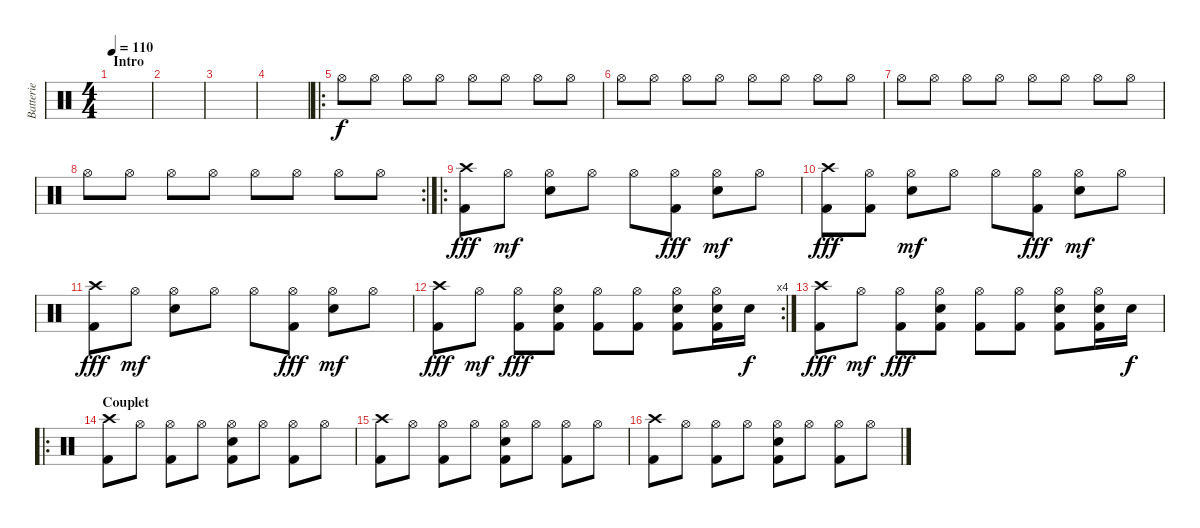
\track ("Batterie" "Batterie") {instrument percussion}
\staff {score}
\articulation defaults
\ts (4 4)
\section ("" "Intro")
\tempo 110
\clef neutral
\ks c
|
|
|
|
\ro "Hi-Hat (open)".8 "Hi-Hat (open)".8 "Hi-Hat (open)".8 "Hi-Hat (open)".8 "Hi-Hat (open)".8 "Hi-Hat (open)".8 "Hi-Hat (open)".8 "Hi-Hat (open)".8
|
"Hi-Hat (open)".8 "Hi-Hat (open)".8 "Hi-Hat (open)".8 "Hi-Hat (open)".8 "Hi-Hat (open)".8 "Hi-Hat (open)".8 "Hi-Hat (open)".8 "Hi-Hat (open)".8 |
"Hi-Hat (open)".8 "Hi-Hat (open)".8 "Hi-Hat (open)".8 "Hi-Hat (open)".8 "Hi-Hat (open)".8 "Hi-Hat (open)".8 "Hi-Hat (open)".8 "Hi-Hat (open)".8 |
\rc 2 "Hi-Hat (open)".8 "Hi-Hat (open)".8 "Hi-Hat (open)".8 "Hi-Hat (open)".8 "Hi-Hat (open)".8 "Hi-Hat (open)".8 "Hi-Hat (open)".8 "Hi-Hat (open)".8
|
\ro
("Crash high (hit)" "Kick (hit) 2").8{dy fff} "Hi-Hat (open)".8{dy mf} ("Hi-Hat (open)" "Snare (hit) 2").8 "Hi-Hat (open)".8 "Hi-Hat (open)".8 ("Hi-Hat (open)" "Kick (hit) 2").8{dy fff} ("Hi-Hat (open)" "Snare (hit) 2").8{dy mf} "Hi-Hat (open)".8 |
("Crash high (hit)" "Kick (hit) 2").8{dy fff} ("Hi-Hat (open)" "Kick (hit) 2").8 ("Hi-Hat (open)" "Snare (hit) 2").8{dy mf} "Hi-Hat (open)".8 "Hi-Hat (open)".8 ("Hi-Hat (open)" "Kick (hit) 2").8{dy fff} ("Hi-Hat (open)" "Snare (hit) 2").8{dy mf} "Hi-Hat (open)".8 |
("Crash high (hit)" "Kick (hit) 2").8{dy fff} "Hi-Hat (open)".8{dy mf} ("Hi-Hat (open)" "Snare (hit) 2").8 "Hi-Hat (open)".8 "Hi-Hat (open)".8 ("Hi-Hat (open)" "Kick (hit) 2").8{dy fff} ("Hi-Hat (open)" "Snare (hit) 2").8{dy mf} "Hi-Hat (open)".8 |
\rc 4
("Crash high (hit)" "Kick (hit) 2").8{dy fff} "Hi-Hat (open)".8{dy mf} ("Hi-Hat (open)" "Kick (hit) 2").8{dy fff} ("Hi-Hat (open)" "Snare (hit) 2" "Kick (hit) 2").8 ("Hi-Hat (open)" "Kick (hit) 2").8 ("Hi-Hat (open)" "Kick (hit) 2").8 ("Hi-Hat (open)" "Snare (hit) 2" "Kick (hit) 2").8 ("Hi-Hat (open)" "Snare (hit) 2" "Kick (hit) 2").16 "Snare (hit) 2".16{dy f} |
("Crash high (hit)" "Kick (hit) 2").8{dy fff} "Hi-Hat (open)".8{dy mf} ("Hi-Hat (open)" "Kick (hit) 2").8{dy fff} ("Hi-Hat (open)" "Snare (hit) 2" "Kick (hit) 2").8 ("Hi-Hat (open)" "Kick (hit) 2").8 ("Hi-Hat (open)" "Kick (hit) 2").8 ("Hi-Hat (open)" "Snare (hit) 2" "Kick (hit) 2").8 ("Hi-Hat (open)" "Snare (hit) 2" "Kick (hit) 2").16 "Snare (hit) 2".16{dy f} |
\ro
\section ("" "Couplet")
("Crash high (hit)" "Kick (hit) 2").8 "Hi-Hat (open)".8 ("Hi-Hat (open)" "Kick (hit) 2").8 "Hi-Hat (open)".8 ("Snare (hit) 2" "Hi-Hat (open)" "Kick (hit) 2").8 "Hi-Hat (open)".8 ("Hi-Hat (open)" "Kick (hit) 2").8 "Hi-Hat (open)".8 |
("Crash high (hit)" "Kick (hit) 2").8 "Hi-Hat (open)".8 ("Hi-Hat (open)" "Kick (hit) 2").8 "Hi-Hat (open)".8 ("Snare (hit) 2" "Hi-Hat (open)" "Kick (hit) 2").8 "Hi-Hat (open)".8 ("Hi-Hat (open)" "Kick (hit) 2").8 "Hi-Hat (open)".8 |
("Crash high (hit)" "Kick (hit) 2").8 "Hi-Hat (open)".8 ("Hi-Hat (open)" "Kick (hit) 2").8 "Hi-Hat (open)".8 ("Snare (hit) 2" "Hi-Hat (open)" "Kick (hit) 2").8 "Hi-Hat (open)".8 ("Hi-Hat (open)" "Kick (hit) 2").8 "Hi-Hat (open)".8
